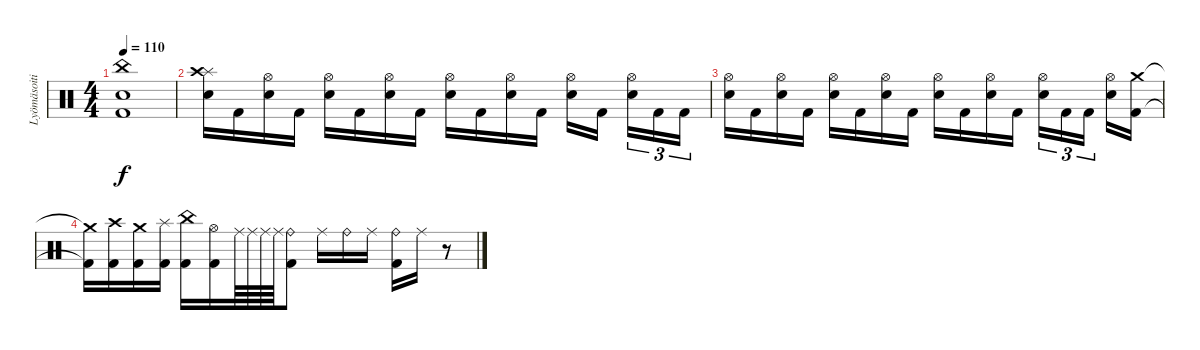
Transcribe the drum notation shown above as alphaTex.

\track ("Lyömäsoitin" "Lyömäsoiti") {mute instrument percussion}
\staff {score}
\articulation defaults
\ts (4 4)
\tempo 110
\clef neutral
\ks c
("China (hit)" "Electric Snare (hit)" "Kick (hit) 2").1{dy f} |
("Splash (hit)" "Crash high (hit)" "Electric Snare (hit)").16 "Kick (hit) 2".16 ("Hi-Hat (open)" "Electric Snare (hit)").16 "Kick (hit) 2".16 ("Hi-Hat (open)" "Electric Snare (hit)").16 "Kick (hit) 2".16 ("Hi-Hat (open)" "Electric Snare (hit)").16 "Kick (hit) 2".16 ("Hi-Hat (open)" "Electric Snare (hit)").16 "Kick (hit) 2".16 ("Hi-Hat (open)" "Electric Snare (hit)").16 "Kick (hit) 2".16 ("Hi-Hat (open)" "Electric Snare (hit)").16 "Kick (hit) 2".16{beam splitsecondary} ("Hi-Hat (open)" "Electric Snare (hit)").16{tu (3 2)} "Kick (hit) 2".16{tu (3 2)} "Kick (hit) 2".16{tu (3 2)} |
("Hi-Hat (open)" "Electric Snare (hit)").16 "Kick (hit) 2".16 ("Hi-Hat (open)" "Electric Snare (hit)").16 "Kick (hit) 2".16 ("Hi-Hat (open)" "Electric Snare (hit)").16 "Kick (hit) 2".16 ("Hi-Hat (open)" "Electric Snare (hit)").16 "Kick (hit) 2".16 ("Hi-Hat (open)" "Electric Snare (hit)").16 "Kick (hit) 2".16 ("Hi-Hat (open)" "Electric Snare (hit)").16 "Kick (hit) 2".16 ("Hi-Hat (open)" "Electric Snare (hit)").16{tu (3 2)} "Kick (hit) 2".16{tu (3 2)} "Kick (hit) 2".16{tu (3 2) beam splitsecondary} ("Hi-Hat (open)" "Electric Snare (hit)").16 ("Crash medium (hit)" "Kick (hit) 2").16 |
("Crash medium (hit)"{t} "Kick (hit) 2"{t}).16 ("Crash high (hit)" "Kick (hit) 2").16 ("Crash medium (hit)" "Kick (hit) 2").16 ("Splash (hit)" "Kick (hit) 2").16 ("China (hit)" "Kick (hit) 2").16 ("Hi-Hat (open)" "Kick (hit) 2").16 "Ride (middle)".64 "Ride (middle)".64 "Ride (middle)".64 "Ride (middle)".64 ("Ride (bell)" "Kick (hit) 2").8 "Ride (middle)".16 "Ride (bell)".16 "Ride (middle)".16 ("Ride (bell)" "Kick (hit) 2").16 "Ride (middle)".16 r.8
